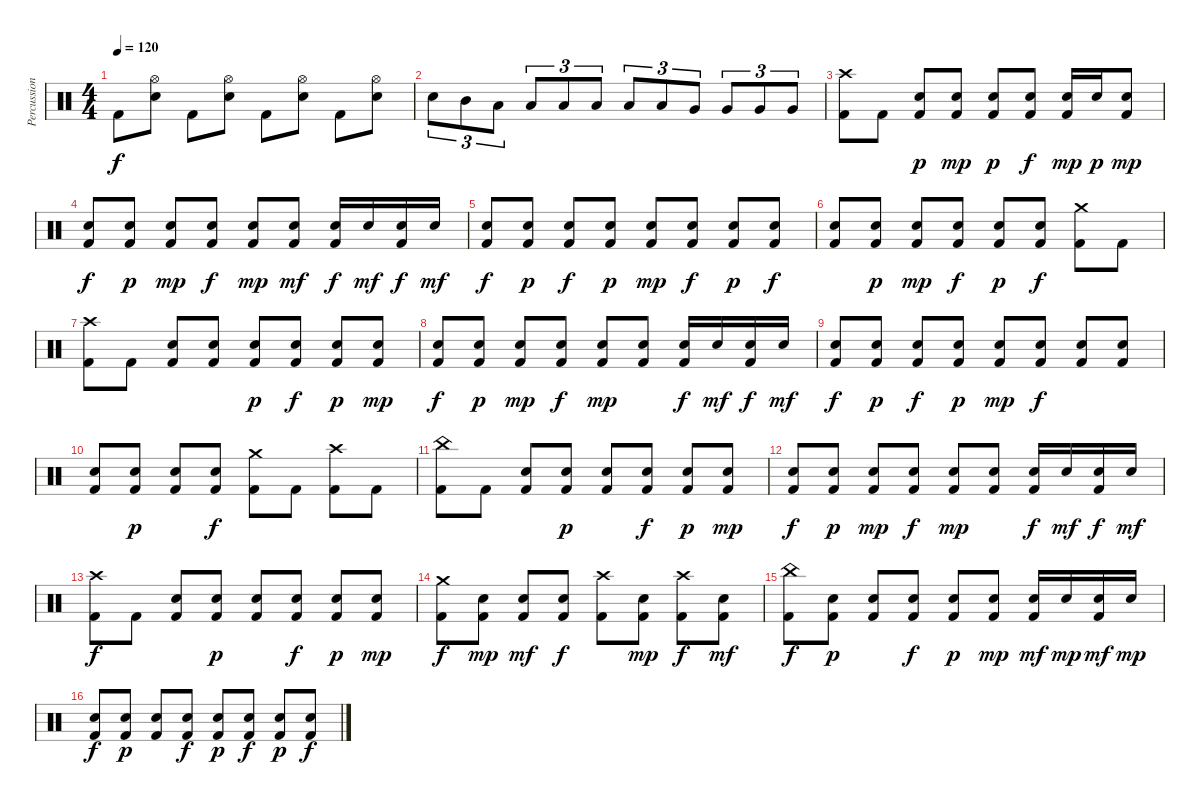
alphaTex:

\track ("Percussion" "Percussion") {instrument percussion}
\staff {score}
\articulation defaults
\ts (4 4)
\tempo 120
\clef neutral
\ks c "Kick (hit) 2".8{dy f}
("Hi-Hat (open)" "Electric Snare (hit)").8 "Kick (hit) 2".8 ("Hi-Hat (open)" "Electric Snare (hit)").8 "Kick (hit) 2".8 ("Hi-Hat (open)" "Electric Snare (hit)").8 "Kick (hit) 2".8 ("Hi-Hat (open)" "Electric Snare (hit)").8 |
"Electric Snare (hit)".8{tu (3 2)} "Mid Tom (hit)".8{tu (3 2)} "Low Tom (hit)".8{tu (3 2)} "Low Tom (hit)".8{tu (3 2)} "Low Tom (hit)".8{tu (3 2)} "Low Tom (hit)".8{tu (3 2)} "Low Tom (hit)".8{tu (3 2)} "Low Tom (hit)".8{tu (3 2)} "Very Low Tom (hit)".8{tu (3 2)} "Very Low Tom (hit)".8{tu (3 2)} "Very Low Tom (hit)".8{tu (3 2)} "Very Low Tom (hit)".8{tu (3 2)} |
("Crash high (hit)" "Kick (hit) 2").8 "Kick (hit) 2".8 ("Electric Snare (hit)" "Kick (hit) 2").8{dy p} ("Electric Snare (hit)" "Kick (hit) 2").8{dy mp} ("Electric Snare (hit)" "Kick (hit) 2").8{dy p} ("Electric Snare (hit)" "Kick (hit) 2").8{dy f} ("Electric Snare (hit)" "Kick (hit) 2").16{dy mp} "Electric Snare (hit)".16{dy p} ("Electric Snare (hit)" "Kick (hit) 2").8{dy mp} |
("Electric Snare (hit)" "Kick (hit) 2").8{dy f} ("Electric Snare (hit)" "Kick (hit) 2").8{dy p} ("Electric Snare (hit)" "Kick (hit) 2").8{dy mp} ("Electric Snare (hit)" "Kick (hit) 2").8{dy f} ("Electric Snare (hit)" "Kick (hit) 2").8{dy mp} ("Electric Snare (hit)" "Kick (hit) 2").8{dy mf} ("Electric Snare (hit)" "Kick (hit) 2").16{dy f} "Electric Snare (hit)".16{dy mf} ("Electric Snare (hit)" "Kick (hit) 2").16{dy f} "Electric Snare (hit)".16{dy mf} |
("Electric Snare (hit)" "Kick (hit) 2").8{dy f} ("Electric Snare (hit)" "Kick (hit) 2").8{dy p} ("Electric Snare (hit)" "Kick (hit) 2").8{dy f} ("Electric Snare (hit)" "Kick (hit) 2").8{dy p} ("Electric Snare (hit)" "Kick (hit) 2").8{dy mp} ("Electric Snare (hit)" "Kick (hit) 2").8{dy f} ("Electric Snare (hit)" "Kick (hit) 2").8{dy p} ("Electric Snare (hit)" "Kick (hit) 2").8{dy f} |
("Electric Snare (hit)" "Kick (hit) 2").8 ("Electric Snare (hit)" "Kick (hit) 2").8{dy p} ("Electric Snare (hit)" "Kick (hit) 2").8{dy mp} ("Electric Snare (hit)" "Kick (hit) 2").8{dy f} ("Electric Snare (hit)" "Kick (hit) 2").8{dy p} ("Electric Snare (hit)" "Kick (hit) 2").8{dy f} ("Crash medium (hit)" "Kick (hit) 2").8 "Kick (hit) 2".8 |
("Crash high (hit)" "Kick (hit) 2").8 "Kick (hit) 2".8 ("Electric Snare (hit)" "Kick (hit) 2").8 ("Electric Snare (hit)" "Kick (hit) 2").8 ("Electric Snare (hit)" "Kick (hit) 2").8{dy p} ("Electric Snare (hit)" "Kick (hit) 2").8{dy f} ("Electric Snare (hit)" "Kick (hit) 2").8{dy p} ("Electric Snare (hit)" "Kick (hit) 2").8{dy mp} |
("Electric Snare (hit)" "Kick (hit) 2").8{dy f} ("Electric Snare (hit)" "Kick (hit) 2").8{dy p} ("Electric Snare (hit)" "Kick (hit) 2").8{dy mp} ("Electric Snare (hit)" "Kick (hit) 2").8{dy f} ("Electric Snare (hit)" "Kick (hit) 2").8{dy mp} ("Electric Snare (hit)" "Kick (hit) 2").8 ("Electric Snare (hit)" "Kick (hit) 2").16{dy f} "Electric Snare (hit)".16{dy mf} ("Electric Snare (hit)" "Kick (hit) 2").16{dy f} "Electric Snare (hit)".16{dy mf} |
("Electric Snare (hit)" "Kick (hit) 2").8{dy f} ("Electric Snare (hit)" "Kick (hit) 2").8{dy p} ("Electric Snare (hit)" "Kick (hit) 2").8{dy f} ("Electric Snare (hit)" "Kick (hit) 2").8{dy p} ("Electric Snare (hit)" "Kick (hit) 2").8{dy mp} ("Electric Snare (hit)" "Kick (hit) 2").8{dy f} ("Electric Snare (hit)" "Kick (hit) 2").8 ("Electric Snare (hit)" "Kick (hit) 2").8 |
("Electric Snare (hit)" "Kick (hit) 2").8 ("Electric Snare (hit)" "Kick (hit) 2").8{dy p} ("Electric Snare (hit)" "Kick (hit) 2").8 ("Electric Snare (hit)" "Kick (hit) 2").8{dy f} ("Crash medium (hit)" "Kick (hit) 2").8 "Kick (hit) 2".8 ("Crash high (hit)" "Kick (hit) 2").8 "Kick (hit) 2".8 |
("China (hit)" "Kick (hit) 2").8 "Kick (hit) 2".8 ("Electric Snare (hit)" "Kick (hit) 2").8 ("Electric Snare (hit)" "Kick (hit) 2").8{dy p} ("Electric Snare (hit)" "Kick (hit) 2").8 ("Electric Snare (hit)" "Kick (hit) 2").8{dy f} ("Electric Snare (hit)" "Kick (hit) 2").8{dy p} ("Electric Snare (hit)" "Kick (hit) 2").8{dy mp} |
("Electric Snare (hit)" "Kick (hit) 2").8{dy f} ("Electric Snare (hit)" "Kick (hit) 2").8{dy p} ("Electric Snare (hit)" "Kick (hit) 2").8{dy mp} ("Electric Snare (hit)" "Kick (hit) 2").8{dy f} ("Electric Snare (hit)" "Kick (hit) 2").8{dy mp} ("Electric Snare (hit)" "Kick (hit) 2").8 ("Electric Snare (hit)" "Kick (hit) 2").16{dy f} "Electric Snare (hit)".16{dy mf} ("Electric Snare (hit)" "Kick (hit) 2").16{dy f} "Electric Snare (hit)".16{dy mf} |
("Crash high (hit)" "Kick (hit) 2").8{dy f} "Kick (hit) 2".8 ("Electric Snare (hit)" "Kick (hit) 2").8 ("Electric Snare (hit)" "Kick (hit) 2").8{dy p} ("Electric Snare (hit)" "Kick (hit) 2").8 ("Electric Snare (hit)" "Kick (hit) 2").8{dy f} ("Electric Snare (hit)" "Kick (hit) 2").8{dy p} ("Electric Snare (hit)" "Kick (hit) 2").8{dy mp} |
("Crash medium (hit)" "Kick (hit) 2").8{dy f} ("Electric Snare (hit)" "Kick (hit) 2").8{dy mp} ("Electric Snare (hit)" "Kick (hit) 2").8{dy mf} ("Electric Snare (hit)" "Kick (hit) 2").8{dy f} ("Crash high (hit)" "Kick (hit) 2").8 ("Electric Snare (hit)" "Kick (hit) 2").8{dy mp} ("Crash high (hit)" "Kick (hit) 2").8{dy f} ("Electric Snare (hit)" "Kick (hit) 2").8{dy mf} |
("China (hit)" "Kick (hit) 2").8{dy f} ("Electric Snare (hit)" "Kick (hit) 2").8{dy p} ("Electric Snare (hit)" "Kick (hit) 2").8 ("Electric Snare (hit)" "Kick (hit) 2").8{dy f} ("Electric Snare (hit)" "Kick (hit) 2").8{dy p} ("Electric Snare (hit)" "Kick (hit) 2").8{dy mp} ("Electric Snare (hit)" "Kick (hit) 2").16{dy mf} "Electric Snare (hit)".16{dy mp} ("Electric Snare (hit)" "Kick (hit) 2").16{dy mf} "Electric Snare (hit)".16{dy mp} |
("Electric Snare (hit)" "Kick (hit) 2").8{dy f} ("Electric Snare (hit)" "Kick (hit) 2").8{dy p} ("Electric Snare (hit)" "Kick (hit) 2").8 ("Electric Snare (hit)" "Kick (hit) 2").8{dy f} ("Electric Snare (hit)" "Kick (hit) 2").8{dy p} ("Electric Snare (hit)" "Kick (hit) 2").8{dy f} ("Electric Snare (hit)" "Kick (hit) 2").8{dy p} ("Electric Snare (hit)" "Kick (hit) 2").8{dy f}
